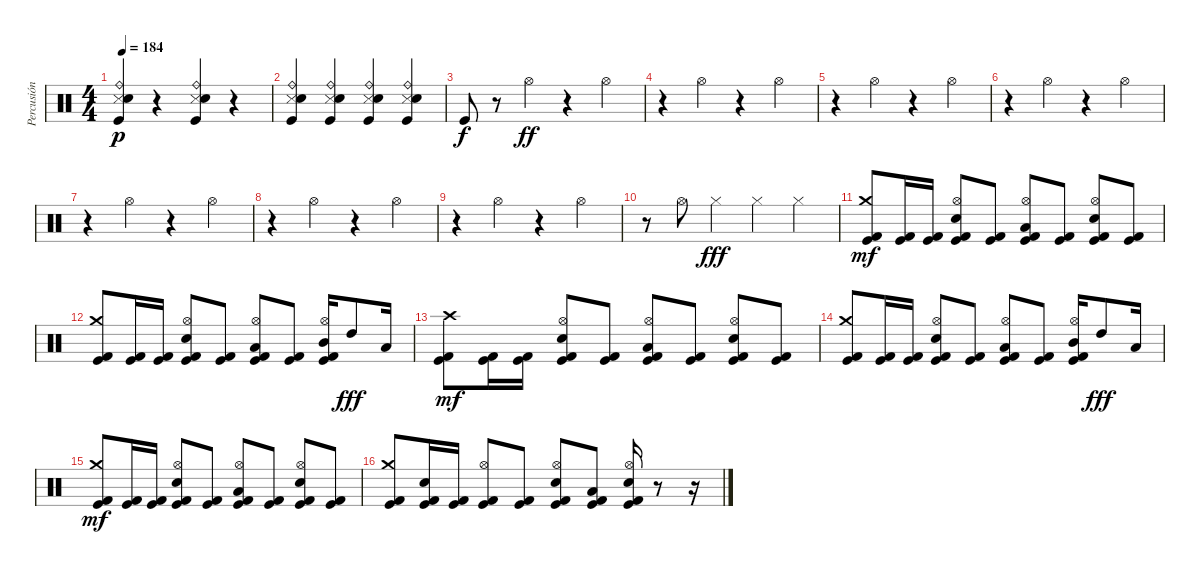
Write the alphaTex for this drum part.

\track ("Percusión" "Percusión") {instrument percussion}
\staff {score}
\articulation defaults
\ts (4 4)
\tempo 184
\clef neutral
\ks c
("Snare (side stick) 3" "Ride (bell)" "Electric Snare (hit)" "Kick (hit)").4{dy p} r.4 ("Snare (side stick) 3" "Ride (bell)" "Electric Snare (hit)" "Kick (hit)").4 r.4 |
("Snare (side stick) 3" "Ride (bell)" "Electric Snare (hit)" "Kick (hit)").4 ("Snare (side stick) 3" "Ride (bell)" "Electric Snare (hit)" "Kick (hit)").4 ("Snare (side stick) 3" "Ride (bell)" "Electric Snare (hit)" "Kick (hit)").4 ("Snare (side stick) 3" "Ride (bell)" "Electric Snare (hit)" "Kick (hit)").4 |
"Kick (hit)".8{dy f} r.8 "Hi-Hat (open)".4{dy ff} r.4 "Hi-Hat (open)".4 |
r.4 "Hi-Hat (open)".4 r.4 "Hi-Hat (open)".4 |
r.4 "Hi-Hat (open)".4 r.4 "Hi-Hat (open)".4 |
r.4 "Hi-Hat (open)".4 r.4 "Hi-Hat (open)".4 |
r.4 "Hi-Hat (open)".4 r.4 "Hi-Hat (open)".4 |
r.4 "Hi-Hat (open)".4 r.4 "Hi-Hat (open)".4 |
r.4 "Hi-Hat (open)".4 r.4 "Hi-Hat (open)".4 |
r.8 "Hi-Hat (open)".8 "Hi-Hat (closed)".4{dy fff} "Hi-Hat (closed)".4 "Hi-Hat (closed)".4 |
("Crash medium (hit)" "Kick (hit) 2" "Kick (hit)").8{dy mf} ("Kick (hit) 2" "Kick (hit)").16 ("Kick (hit) 2" "Kick (hit)").16 ("Hi-Hat (open)" "Electric Snare (hit)" "Kick (hit) 2" "Kick (hit)").8 ("Kick (hit) 2" "Kick (hit)").8 ("Hi-Hat (open)" "Low Floor Tom (hit)" "Kick (hit) 2" "Kick (hit)").8 ("Kick (hit) 2" "Kick (hit)").8 ("Hi-Hat (open)" "Electric Snare (hit)" "Kick (hit) 2" "Kick (hit)").8 ("Kick (hit) 2" "Kick (hit)").8 |
("Crash medium (hit)" "Kick (hit) 2" "Kick (hit)").8 ("Kick (hit) 2" "Kick (hit)").16 ("Kick (hit) 2" "Kick (hit)").16 ("Hi-Hat (open)" "Electric Snare (hit)" "Kick (hit) 2" "Kick (hit)").8 ("Kick (hit) 2" "Kick (hit)").8 ("Hi-Hat (open)" "Low Floor Tom (hit)" "Kick (hit) 2" "Kick (hit)").8 ("Kick (hit) 2" "Kick (hit)").8 ("Hi-Hat (open)" "Mid Tom (hit)" "Kick (hit) 2" "Kick (hit)").16 "High Tom (hit)".8{dy fff} "Low Floor Tom (hit)".16 |
("Crash high (hit)" "Kick (hit) 2" "Kick (hit)").8{dy mf} ("Kick (hit) 2" "Kick (hit)").16 ("Kick (hit) 2" "Kick (hit)").16 ("Hi-Hat (open)" "Electric Snare (hit)" "Kick (hit) 2" "Kick (hit)").8 ("Kick (hit) 2" "Kick (hit)").8 ("Hi-Hat (open)" "Low Floor Tom (hit)" "Kick (hit) 2" "Kick (hit)").8 ("Kick (hit) 2" "Kick (hit)").8 ("Hi-Hat (open)" "Electric Snare (hit)" "Kick (hit) 2" "Kick (hit)").8 ("Kick (hit) 2" "Kick (hit)").8 |
("Crash medium (hit)" "Kick (hit) 2" "Kick (hit)").8 ("Kick (hit) 2" "Kick (hit)").16 ("Kick (hit) 2" "Kick (hit)").16 ("Hi-Hat (open)" "Electric Snare (hit)" "Kick (hit) 2" "Kick (hit)").8 ("Kick (hit) 2" "Kick (hit)").8 ("Hi-Hat (open)" "Low Floor Tom (hit)" "Kick (hit) 2" "Kick (hit)").8 ("Kick (hit) 2" "Kick (hit)").8 ("Hi-Hat (open)" "Mid Tom (hit)" "Kick (hit) 2" "Kick (hit)").16 "High Tom (hit)".8{dy fff} "Low Floor Tom (hit)".16 |
("Crash medium (hit)" "Kick (hit) 2" "Kick (hit)").8{dy mf} ("Kick (hit) 2" "Kick (hit)").16 ("Kick (hit) 2" "Kick (hit)").16 ("Hi-Hat (open)" "Electric Snare (hit)" "Kick (hit) 2" "Kick (hit)").8 ("Kick (hit) 2" "Kick (hit)").8 ("Hi-Hat (open)" "Low Floor Tom (hit)" "Kick (hit) 2" "Kick (hit)").8 ("Kick (hit) 2" "Kick (hit)").8 ("Hi-Hat (open)" "Electric Snare (hit)" "Kick (hit) 2" "Kick (hit)").8 ("Kick (hit) 2" "Kick (hit)").8 |
("Crash medium (hit)" "Kick (hit) 2" "Kick (hit)").8 ("Electric Snare (hit)" "Kick (hit) 2" "Kick (hit)").16 ("Kick (hit) 2" "Kick (hit)").16 ("Hi-Hat (open)" "Kick (hit) 2" "Kick (hit)").8 ("Kick (hit) 2" "Kick (hit)").8 ("Hi-Hat (open)" "Electric Snare (hit)" "Kick (hit) 2" "Kick (hit)").8 ("Low Floor Tom (hit)" "Kick (hit) 2" "Kick (hit)").8 ("Hi-Hat (open)" "Electric Snare (hit)" "Kick (hit) 2" "Kick (hit)").16 r.8 r.16
